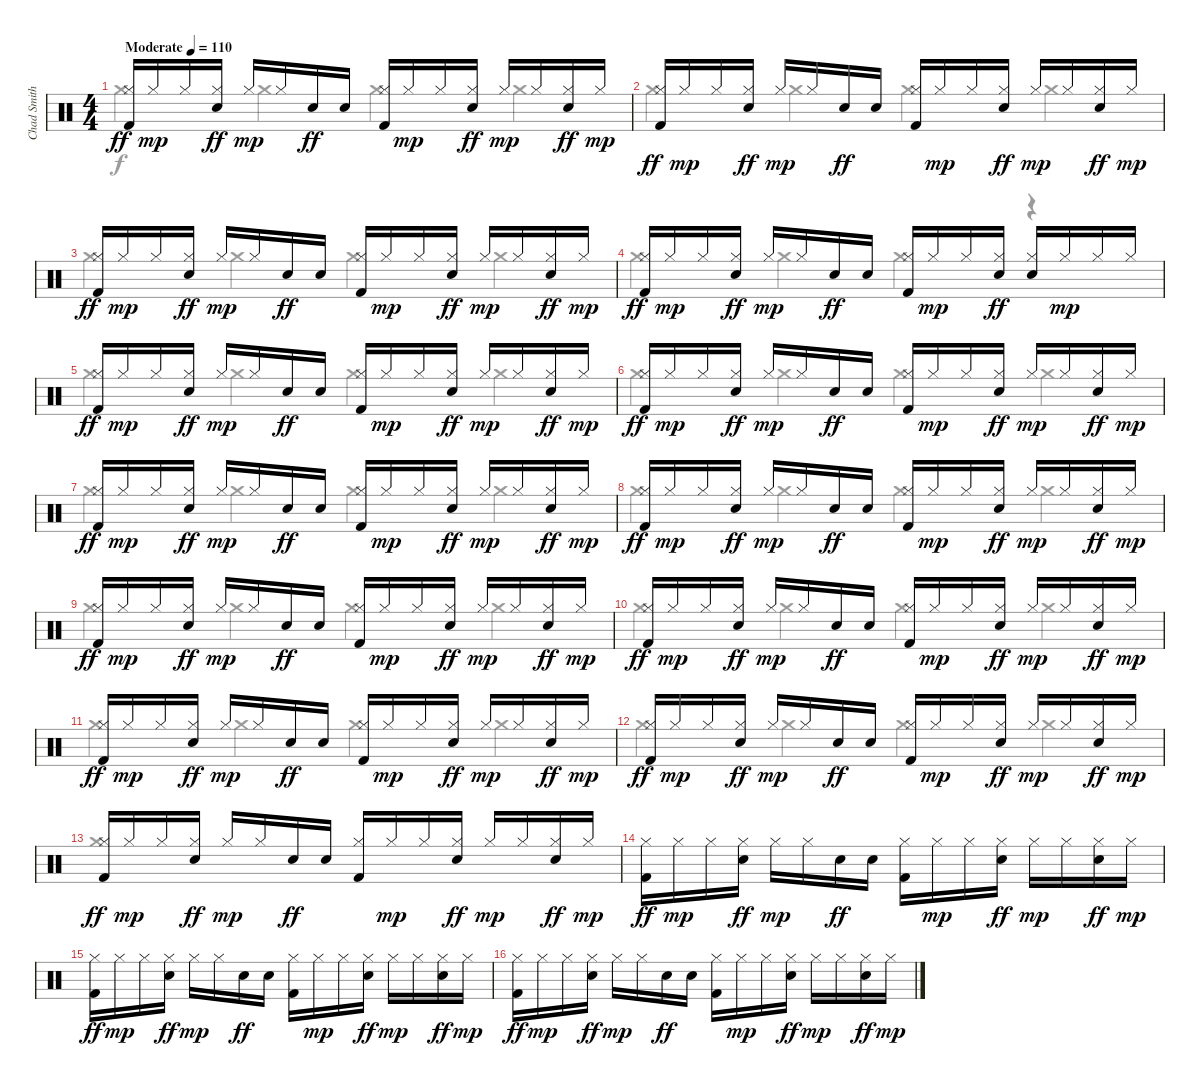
\track ("Chad Smith (drums)" "Chad Smith") {instrument percussion}
\staff {score}
\articulation defaults
\voice
\ts (4 4)
\tempo (110 "Moderate")
\clef neutral
\ks c
("Hi-Hat (closed)" "Kick (hit) 2").16{dy ff} "Hi-Hat (closed)".16{dy mp} "Hi-Hat (closed)".16 ("Hi-Hat (closed)" "Electric Snare (hit)").16{dy ff} "Hi-Hat (closed)".16{dy mp} "Hi-Hat (closed)".16 "Electric Snare (hit)".16{dy ff} "Electric Snare (hit)".16 ("Hi-Hat (closed)" "Kick (hit) 2").16 "Hi-Hat (closed)".16{dy mp} "Hi-Hat (closed)".16 ("Hi-Hat (closed)" "Electric Snare (hit)").16{dy ff} "Hi-Hat (closed)".16{dy mp} "Hi-Hat (closed)".16 ("Hi-Hat (closed)" "Electric Snare (hit)").16{dy ff} "Hi-Hat (closed)".16{dy mp} |
("Hi-Hat (closed)" "Kick (hit) 2").16{dy ff} "Hi-Hat (closed)".16{dy mp} "Hi-Hat (closed)".16 ("Hi-Hat (closed)" "Electric Snare (hit)").16{dy ff} "Hi-Hat (closed)".16{dy mp} "Hi-Hat (closed)".16 "Electric Snare (hit)".16{dy ff} "Electric Snare (hit)".16 ("Hi-Hat (closed)" "Kick (hit) 2").16 "Hi-Hat (closed)".16{dy mp} "Hi-Hat (closed)".16 ("Hi-Hat (closed)" "Electric Snare (hit)").16{dy ff} "Hi-Hat (closed)".16{dy mp} "Hi-Hat (closed)".16 ("Hi-Hat (closed)" "Electric Snare (hit)").16{dy ff} "Hi-Hat (closed)".16{dy mp} |
("Hi-Hat (closed)" "Kick (hit) 2").16{dy ff} "Hi-Hat (closed)".16{dy mp} "Hi-Hat (closed)".16 ("Hi-Hat (closed)" "Electric Snare (hit)").16{dy ff} "Hi-Hat (closed)".16{dy mp} "Hi-Hat (closed)".16 "Electric Snare (hit)".16{dy ff} "Electric Snare (hit)".16 ("Hi-Hat (closed)" "Kick (hit) 2").16 "Hi-Hat (closed)".16{dy mp} "Hi-Hat (closed)".16 ("Hi-Hat (closed)" "Electric Snare (hit)").16{dy ff} "Hi-Hat (closed)".16{dy mp} "Hi-Hat (closed)".16 ("Hi-Hat (closed)" "Electric Snare (hit)").16{dy ff} "Hi-Hat (closed)".16{dy mp} |
("Hi-Hat (closed)" "Kick (hit) 2").16{dy ff} "Hi-Hat (closed)".16{dy mp} "Hi-Hat (closed)".16 ("Hi-Hat (closed)" "Electric Snare (hit)").16{dy ff} "Hi-Hat (closed)".16{dy mp} "Hi-Hat (closed)".16 "Electric Snare (hit)".16{dy ff} "Electric Snare (hit)".16 ("Hi-Hat (closed)" "Kick (hit) 2").16 "Hi-Hat (closed)".16{dy mp} "Hi-Hat (closed)".16 ("Hi-Hat (closed)" "Electric Snare (hit)").16{dy ff} ("Hi-Hat (closed)" "Electric Snare (hit)").16 "Hi-Hat (closed)".16{dy mp} "Hi-Hat (closed)".16 "Hi-Hat (closed)".16 |
("Hi-Hat (closed)" "Kick (hit) 2").16{dy ff} "Hi-Hat (closed)".16{dy mp} "Hi-Hat (closed)".16 ("Hi-Hat (closed)" "Electric Snare (hit)").16{dy ff} "Hi-Hat (closed)".16{dy mp} "Hi-Hat (closed)".16 "Electric Snare (hit)".16{dy ff} "Electric Snare (hit)".16 ("Hi-Hat (closed)" "Kick (hit) 2").16 "Hi-Hat (closed)".16{dy mp} "Hi-Hat (closed)".16 ("Hi-Hat (closed)" "Electric Snare (hit)").16{dy ff} "Hi-Hat (closed)".16{dy mp} "Hi-Hat (closed)".16 ("Hi-Hat (closed)" "Electric Snare (hit)").16{dy ff} "Hi-Hat (closed)".16{dy mp} |
("Hi-Hat (closed)" "Kick (hit) 2").16{dy ff} "Hi-Hat (closed)".16{dy mp} "Hi-Hat (closed)".16 ("Hi-Hat (closed)" "Electric Snare (hit)").16{dy ff} "Hi-Hat (closed)".16{dy mp} "Hi-Hat (closed)".16 "Electric Snare (hit)".16{dy ff} "Electric Snare (hit)".16 ("Hi-Hat (closed)" "Kick (hit) 2").16 "Hi-Hat (closed)".16{dy mp} "Hi-Hat (closed)".16 ("Hi-Hat (closed)" "Electric Snare (hit)").16{dy ff} "Hi-Hat (closed)".16{dy mp} "Hi-Hat (closed)".16 ("Hi-Hat (closed)" "Electric Snare (hit)").16{dy ff} "Hi-Hat (closed)".16{dy mp} |
("Hi-Hat (closed)" "Kick (hit) 2").16{dy ff} "Hi-Hat (closed)".16{dy mp} "Hi-Hat (closed)".16 ("Hi-Hat (closed)" "Electric Snare (hit)").16{dy ff} "Hi-Hat (closed)".16{dy mp} "Hi-Hat (closed)".16 "Electric Snare (hit)".16{dy ff} "Electric Snare (hit)".16 ("Hi-Hat (closed)" "Kick (hit) 2").16 "Hi-Hat (closed)".16{dy mp} "Hi-Hat (closed)".16 ("Hi-Hat (closed)" "Electric Snare (hit)").16{dy ff} "Hi-Hat (closed)".16{dy mp} "Hi-Hat (closed)".16 ("Hi-Hat (closed)" "Electric Snare (hit)").16{dy ff} "Hi-Hat (closed)".16{dy mp} |
("Hi-Hat (closed)" "Kick (hit) 2").16{dy ff} "Hi-Hat (closed)".16{dy mp} "Hi-Hat (closed)".16 ("Hi-Hat (closed)" "Electric Snare (hit)").16{dy ff} "Hi-Hat (closed)".16{dy mp} "Hi-Hat (closed)".16 "Electric Snare (hit)".16{dy ff} "Electric Snare (hit)".16 ("Hi-Hat (closed)" "Kick (hit) 2").16 "Hi-Hat (closed)".16{dy mp} "Hi-Hat (closed)".16 ("Hi-Hat (closed)" "Electric Snare (hit)").16{dy ff} "Hi-Hat (closed)".16{dy mp} "Hi-Hat (closed)".16 ("Hi-Hat (closed)" "Electric Snare (hit)").16{dy ff} "Hi-Hat (closed)".16{dy mp} |
("Hi-Hat (closed)" "Kick (hit) 2").16{dy ff} "Hi-Hat (closed)".16{dy mp} "Hi-Hat (closed)".16 ("Hi-Hat (closed)" "Electric Snare (hit)").16{dy ff} "Hi-Hat (closed)".16{dy mp} "Hi-Hat (closed)".16 "Electric Snare (hit)".16{dy ff} "Electric Snare (hit)".16 ("Hi-Hat (closed)" "Kick (hit) 2").16 "Hi-Hat (closed)".16{dy mp} "Hi-Hat (closed)".16 ("Hi-Hat (closed)" "Electric Snare (hit)").16{dy ff} "Hi-Hat (closed)".16{dy mp} "Hi-Hat (closed)".16 ("Hi-Hat (closed)" "Electric Snare (hit)").16{dy ff} "Hi-Hat (closed)".16{dy mp} |
("Hi-Hat (closed)" "Kick (hit) 2").16{dy ff} "Hi-Hat (closed)".16{dy mp} "Hi-Hat (closed)".16 ("Hi-Hat (closed)" "Electric Snare (hit)").16{dy ff} "Hi-Hat (closed)".16{dy mp} "Hi-Hat (closed)".16 "Electric Snare (hit)".16{dy ff} "Electric Snare (hit)".16 ("Hi-Hat (closed)" "Kick (hit) 2").16 "Hi-Hat (closed)".16{dy mp} "Hi-Hat (closed)".16 ("Hi-Hat (closed)" "Electric Snare (hit)").16{dy ff} "Hi-Hat (closed)".16{dy mp} "Hi-Hat (closed)".16 ("Hi-Hat (closed)" "Electric Snare (hit)").16{dy ff} "Hi-Hat (closed)".16{dy mp} |
("Hi-Hat (closed)" "Kick (hit) 2").16{dy ff} "Hi-Hat (closed)".16{dy mp} "Hi-Hat (closed)".16 ("Hi-Hat (closed)" "Electric Snare (hit)").16{dy ff} "Hi-Hat (closed)".16{dy mp} "Hi-Hat (closed)".16 "Electric Snare (hit)".16{dy ff} "Electric Snare (hit)".16 ("Hi-Hat (closed)" "Kick (hit) 2").16 "Hi-Hat (closed)".16{dy mp} "Hi-Hat (closed)".16 ("Hi-Hat (closed)" "Electric Snare (hit)").16{dy ff} "Hi-Hat (closed)".16{dy mp} "Hi-Hat (closed)".16 ("Hi-Hat (closed)" "Electric Snare (hit)").16{dy ff} "Hi-Hat (closed)".16{dy mp} |
("Hi-Hat (closed)" "Kick (hit) 2").16{dy ff} "Hi-Hat (closed)".16{dy mp} "Hi-Hat (closed)".16 ("Hi-Hat (closed)" "Electric Snare (hit)").16{dy ff} "Hi-Hat (closed)".16{dy mp} "Hi-Hat (closed)".16 "Electric Snare (hit)".16{dy ff} "Electric Snare (hit)".16 ("Hi-Hat (closed)" "Kick (hit) 2").16 "Hi-Hat (closed)".16{dy mp} "Hi-Hat (closed)".16 ("Hi-Hat (closed)" "Electric Snare (hit)").16{dy ff} "Hi-Hat (closed)".16{dy mp} "Hi-Hat (closed)".16 ("Hi-Hat (closed)" "Electric Snare (hit)").16{dy ff} "Hi-Hat (closed)".16{dy mp} |
("Hi-Hat (closed)" "Kick (hit) 2").16{dy ff} "Hi-Hat (closed)".16{dy mp} "Hi-Hat (closed)".16 ("Hi-Hat (closed)" "Electric Snare (hit)").16{dy ff} "Hi-Hat (closed)".16{dy mp} "Hi-Hat (closed)".16 "Electric Snare (hit)".16{dy ff} "Electric Snare (hit)".16 ("Hi-Hat (closed)" "Kick (hit) 2").16 "Hi-Hat (closed)".16{dy mp} "Hi-Hat (closed)".16 ("Hi-Hat (closed)" "Electric Snare (hit)").16{dy ff} "Hi-Hat (closed)".16{dy mp} "Hi-Hat (closed)".16 ("Hi-Hat (closed)" "Electric Snare (hit)").16{dy ff} "Hi-Hat (closed)".16{dy mp} |
("Hi-Hat (closed)" "Kick (hit) 2").16{dy ff} "Hi-Hat (closed)".16{dy mp} "Hi-Hat (closed)".16 ("Hi-Hat (closed)" "Electric Snare (hit)").16{dy ff} "Hi-Hat (closed)".16{dy mp} "Hi-Hat (closed)".16 "Electric Snare (hit)".16{dy ff} "Electric Snare (hit)".16 ("Hi-Hat (closed)" "Kick (hit) 2").16 "Hi-Hat (closed)".16{dy mp} "Hi-Hat (closed)".16 ("Hi-Hat (closed)" "Electric Snare (hit)").16{dy ff} "Hi-Hat (closed)".16{dy mp} "Hi-Hat (closed)".16 ("Hi-Hat (closed)" "Electric Snare (hit)").16{dy ff} "Hi-Hat (closed)".16{dy mp} |
("Hi-Hat (closed)" "Kick (hit) 2").16{dy ff} "Hi-Hat (closed)".16{dy mp} "Hi-Hat (closed)".16 ("Hi-Hat (closed)" "Electric Snare (hit)").16{dy ff} "Hi-Hat (closed)".16{dy mp} "Hi-Hat (closed)".16 "Electric Snare (hit)".16{dy ff} "Electric Snare (hit)".16 ("Hi-Hat (closed)" "Kick (hit) 2").16 "Hi-Hat (closed)".16{dy mp} "Hi-Hat (closed)".16 ("Hi-Hat (closed)" "Electric Snare (hit)").16{dy ff} "Hi-Hat (closed)".16{dy mp} "Hi-Hat (closed)".16 ("Hi-Hat (closed)" "Electric Snare (hit)").16{dy ff} "Hi-Hat (closed)".16{dy mp} |
("Hi-Hat (closed)" "Kick (hit) 2").16{dy ff} "Hi-Hat (closed)".16{dy mp} "Hi-Hat (closed)".16 ("Hi-Hat (closed)" "Electric Snare (hit)").16{dy ff} "Hi-Hat (closed)".16{dy mp} "Hi-Hat (closed)".16 "Electric Snare (hit)".16{dy ff} "Electric Snare (hit)".16 ("Hi-Hat (closed)" "Kick (hit) 2").16 "Hi-Hat (closed)".16{dy mp} "Hi-Hat (closed)".16 ("Hi-Hat (closed)" "Electric Snare (hit)").16{dy ff} "Hi-Hat (closed)".16{dy mp} "Hi-Hat (closed)".16 ("Hi-Hat (closed)" "Electric Snare (hit)").16{dy ff} "Hi-Hat (closed)".16{dy mp}
\voice
\clef neutral
\ottava regular
\simile none
\ks c "Crash medium (hit)".4{dy f} "Crash medium (hit)".4 "Crash medium (hit)".4 "Crash medium (hit)".4
|
"Crash medium (hit)".4 "Crash medium (hit)".4 "Crash medium (hit)".4 "Crash medium (hit)".4 |
"Crash medium (hit)".4 "Crash medium (hit)".4 "Crash medium (hit)".4 "Crash medium (hit)".4 |
"Crash medium (hit)".4 "Crash medium (hit)".4 "Crash medium (hit)".4 r.4 |
"Crash medium (hit)".4 "Crash medium (hit)".4 "Crash medium (hit)".4 "Crash medium (hit)".4 |
"Crash medium (hit)".4 "Crash medium (hit)".4 "Crash medium (hit)".4 "Crash medium (hit)".4 |
"Crash medium (hit)".4 "Crash medium (hit)".4 "Crash medium (hit)".4 "Crash medium (hit)".4 |
"Crash medium (hit)".4 "Crash medium (hit)".4 "Crash medium (hit)".4 "Crash medium (hit)".4 |
"Crash medium (hit)".4 "Crash medium (hit)".4 "Crash medium (hit)".4 "Crash medium (hit)".4 |
"Crash medium (hit)".4 "Crash medium (hit)".4 "Crash medium (hit)".4 "Crash medium (hit)".4 |
"Crash medium (hit)".4 "Crash medium (hit)".4 "Crash medium (hit)".4 "Crash medium (hit)".4 |
"Crash medium (hit)".4 "Crash medium (hit)".4 "Crash medium (hit)".4 "Crash medium (hit)".4 |
"Crash medium (hit)".1 |
|
|
